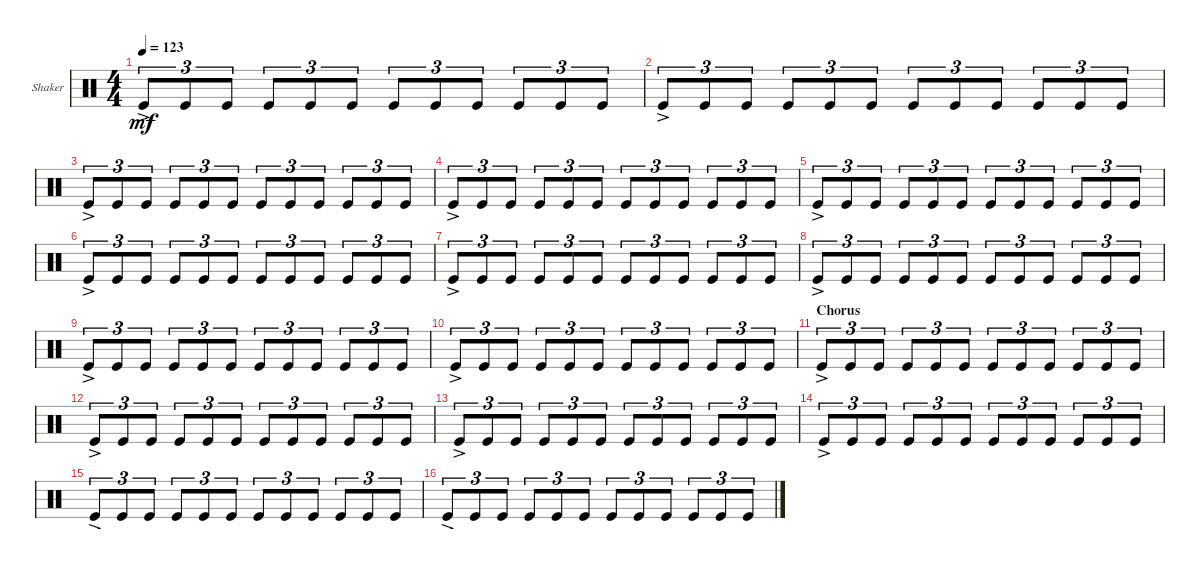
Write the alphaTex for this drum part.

\defaultSystemsLayout 4
\bracketExtendMode groupsimilarinstruments
\firstSystemTrackNameOrientation horizontal
\otherSystemsTrackNameOrientation horizontal
\track ("Shaker" "Shaker") {multiBarRest instrument percussion}
\staff {score}
\articulation defaults
\ts (4 4)
\tempo 123
\clef neutral
\ks c "Kick (hit)"{ac}.8{tu (3 2) dy mf} "Kick (hit)".8{tu (3 2)} "Kick (hit)".8{tu (3 2)} "Kick (hit)".8{tu (3 2)} "Kick (hit)".8{tu (3 2)} "Kick (hit)".8{tu (3 2)} "Kick (hit)".8{tu (3 2)} "Kick (hit)".8{tu (3 2)} "Kick (hit)".8{tu (3 2)} "Kick (hit)".8{tu (3 2)} "Kick (hit)".8{tu (3 2)} "Kick (hit)".8{tu (3 2)}
|
"Kick (hit)"{ac}.8{tu (3 2)} "Kick (hit)".8{tu (3 2)} "Kick (hit)".8{tu (3 2)} "Kick (hit)".8{tu (3 2)} "Kick (hit)".8{tu (3 2)} "Kick (hit)".8{tu (3 2)} "Kick (hit)".8{tu (3 2)} "Kick (hit)".8{tu (3 2)} "Kick (hit)".8{tu (3 2)} "Kick (hit)".8{tu (3 2)} "Kick (hit)".8{tu (3 2)} "Kick (hit)".8{tu (3 2)} |
"Kick (hit)"{ac}.8{tu (3 2)} "Kick (hit)".8{tu (3 2)} "Kick (hit)".8{tu (3 2)} "Kick (hit)".8{tu (3 2)} "Kick (hit)".8{tu (3 2)} "Kick (hit)".8{tu (3 2)} "Kick (hit)".8{tu (3 2)} "Kick (hit)".8{tu (3 2)} "Kick (hit)".8{tu (3 2)} "Kick (hit)".8{tu (3 2)} "Kick (hit)".8{tu (3 2)} "Kick (hit)".8{tu (3 2)} |
"Kick (hit)"{ac}.8{tu (3 2)} "Kick (hit)".8{tu (3 2)} "Kick (hit)".8{tu (3 2)} "Kick (hit)".8{tu (3 2)} "Kick (hit)".8{tu (3 2)} "Kick (hit)".8{tu (3 2)} "Kick (hit)".8{tu (3 2)} "Kick (hit)".8{tu (3 2)} "Kick (hit)".8{tu (3 2)} "Kick (hit)".8{tu (3 2)} "Kick (hit)".8{tu (3 2)} "Kick (hit)".8{tu (3 2)} |
"Kick (hit)"{ac}.8{tu (3 2)} "Kick (hit)".8{tu (3 2)} "Kick (hit)".8{tu (3 2)} "Kick (hit)".8{tu (3 2)} "Kick (hit)".8{tu (3 2)} "Kick (hit)".8{tu (3 2)} "Kick (hit)".8{tu (3 2)} "Kick (hit)".8{tu (3 2)} "Kick (hit)".8{tu (3 2)} "Kick (hit)".8{tu (3 2)} "Kick (hit)".8{tu (3 2)} "Kick (hit)".8{tu (3 2)} |
"Kick (hit)"{ac}.8{tu (3 2)} "Kick (hit)".8{tu (3 2)} "Kick (hit)".8{tu (3 2)} "Kick (hit)".8{tu (3 2)} "Kick (hit)".8{tu (3 2)} "Kick (hit)".8{tu (3 2)} "Kick (hit)".8{tu (3 2)} "Kick (hit)".8{tu (3 2)} "Kick (hit)".8{tu (3 2)} "Kick (hit)".8{tu (3 2)} "Kick (hit)".8{tu (3 2)} "Kick (hit)".8{tu (3 2)} |
"Kick (hit)"{ac}.8{tu (3 2)} "Kick (hit)".8{tu (3 2)} "Kick (hit)".8{tu (3 2)} "Kick (hit)".8{tu (3 2)} "Kick (hit)".8{tu (3 2)} "Kick (hit)".8{tu (3 2)} "Kick (hit)".8{tu (3 2)} "Kick (hit)".8{tu (3 2)} "Kick (hit)".8{tu (3 2)} "Kick (hit)".8{tu (3 2)} "Kick (hit)".8{tu (3 2)} "Kick (hit)".8{tu (3 2)} |
"Kick (hit)"{ac}.8{tu (3 2)} "Kick (hit)".8{tu (3 2)} "Kick (hit)".8{tu (3 2)} "Kick (hit)".8{tu (3 2)} "Kick (hit)".8{tu (3 2)} "Kick (hit)".8{tu (3 2)} "Kick (hit)".8{tu (3 2)} "Kick (hit)".8{tu (3 2)} "Kick (hit)".8{tu (3 2)} "Kick (hit)".8{tu (3 2)} "Kick (hit)".8{tu (3 2)} "Kick (hit)".8{tu (3 2)} |
"Kick (hit)"{ac}.8{tu (3 2)} "Kick (hit)".8{tu (3 2)} "Kick (hit)".8{tu (3 2)} "Kick (hit)".8{tu (3 2)} "Kick (hit)".8{tu (3 2)} "Kick (hit)".8{tu (3 2)} "Kick (hit)".8{tu (3 2)} "Kick (hit)".8{tu (3 2)} "Kick (hit)".8{tu (3 2)} "Kick (hit)".8{tu (3 2)} "Kick (hit)".8{tu (3 2)} "Kick (hit)".8{tu (3 2)} |
"Kick (hit)"{ac}.8{tu (3 2)} "Kick (hit)".8{tu (3 2)} "Kick (hit)".8{tu (3 2)} "Kick (hit)".8{tu (3 2)} "Kick (hit)".8{tu (3 2)} "Kick (hit)".8{tu (3 2)} "Kick (hit)".8{tu (3 2)} "Kick (hit)".8{tu (3 2)} "Kick (hit)".8{tu (3 2)} "Kick (hit)".8{tu (3 2)} "Kick (hit)".8{tu (3 2)} "Kick (hit)".8{tu (3 2)} |
\section ("" "Chorus")
"Kick (hit)"{ac}.8{tu (3 2)} "Kick (hit)".8{tu (3 2)} "Kick (hit)".8{tu (3 2)} "Kick (hit)".8{tu (3 2)} "Kick (hit)".8{tu (3 2)} "Kick (hit)".8{tu (3 2)} "Kick (hit)".8{tu (3 2)} "Kick (hit)".8{tu (3 2)} "Kick (hit)".8{tu (3 2)} "Kick (hit)".8{tu (3 2)} "Kick (hit)".8{tu (3 2)} "Kick (hit)".8{tu (3 2)} |
"Kick (hit)"{ac}.8{tu (3 2)} "Kick (hit)".8{tu (3 2)} "Kick (hit)".8{tu (3 2)} "Kick (hit)".8{tu (3 2)} "Kick (hit)".8{tu (3 2)} "Kick (hit)".8{tu (3 2)} "Kick (hit)".8{tu (3 2)} "Kick (hit)".8{tu (3 2)} "Kick (hit)".8{tu (3 2)} "Kick (hit)".8{tu (3 2)} "Kick (hit)".8{tu (3 2)} "Kick (hit)".8{tu (3 2)} |
"Kick (hit)"{ac}.8{tu (3 2)} "Kick (hit)".8{tu (3 2)} "Kick (hit)".8{tu (3 2)} "Kick (hit)".8{tu (3 2)} "Kick (hit)".8{tu (3 2)} "Kick (hit)".8{tu (3 2)} "Kick (hit)".8{tu (3 2)} "Kick (hit)".8{tu (3 2)} "Kick (hit)".8{tu (3 2)} "Kick (hit)".8{tu (3 2)} "Kick (hit)".8{tu (3 2)} "Kick (hit)".8{tu (3 2)} |
"Kick (hit)"{ac}.8{tu (3 2)} "Kick (hit)".8{tu (3 2)} "Kick (hit)".8{tu (3 2)} "Kick (hit)".8{tu (3 2)} "Kick (hit)".8{tu (3 2)} "Kick (hit)".8{tu (3 2)} "Kick (hit)".8{tu (3 2)} "Kick (hit)".8{tu (3 2)} "Kick (hit)".8{tu (3 2)} "Kick (hit)".8{tu (3 2)} "Kick (hit)".8{tu (3 2)} "Kick (hit)".8{tu (3 2)} |
"Kick (hit)"{ac}.8{tu (3 2)} "Kick (hit)".8{tu (3 2)} "Kick (hit)".8{tu (3 2)} "Kick (hit)".8{tu (3 2)} "Kick (hit)".8{tu (3 2)} "Kick (hit)".8{tu (3 2)} "Kick (hit)".8{tu (3 2)} "Kick (hit)".8{tu (3 2)} "Kick (hit)".8{tu (3 2)} "Kick (hit)".8{tu (3 2)} "Kick (hit)".8{tu (3 2)} "Kick (hit)".8{tu (3 2)} |
"Kick (hit)"{ac}.8{tu (3 2)} "Kick (hit)".8{tu (3 2)} "Kick (hit)".8{tu (3 2)} "Kick (hit)".8{tu (3 2)} "Kick (hit)".8{tu (3 2)} "Kick (hit)".8{tu (3 2)} "Kick (hit)".8{tu (3 2)} "Kick (hit)".8{tu (3 2)} "Kick (hit)".8{tu (3 2)} "Kick (hit)".8{tu (3 2)} "Kick (hit)".8{tu (3 2)} "Kick (hit)".8{tu (3 2)}
